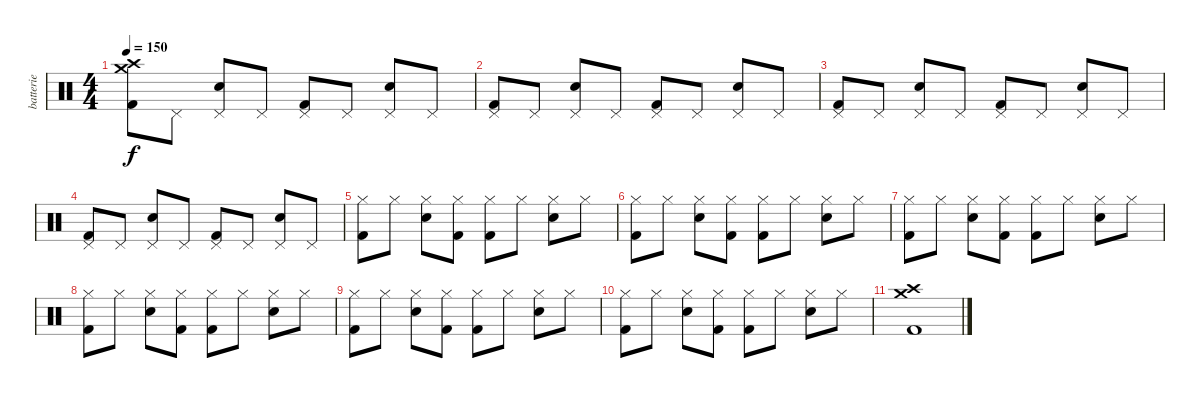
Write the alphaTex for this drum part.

\track ("batterie" "batterie") {instrument percussion}
\staff {score}
\articulation defaults
\ts (4 4)
\tempo 150
\clef neutral
\ks c
("Crash high (hit)" "Crash medium (hit)" "Kick (hit) 2").8{dy f} "Pedal Hi-Hat (hit)".8 ("Pedal Hi-Hat (hit)" "Snare (hit) 2").8 "Pedal Hi-Hat (hit)".8 ("Pedal Hi-Hat (hit)" "Kick (hit) 2").8 "Pedal Hi-Hat (hit)".8 ("Pedal Hi-Hat (hit)" "Snare (hit) 2").8 "Pedal Hi-Hat (hit)".8 |
("Pedal Hi-Hat (hit)" "Kick (hit) 2").8 "Pedal Hi-Hat (hit)".8 ("Pedal Hi-Hat (hit)" "Snare (hit) 2").8 "Pedal Hi-Hat (hit)".8 ("Pedal Hi-Hat (hit)" "Kick (hit) 2").8 "Pedal Hi-Hat (hit)".8 ("Pedal Hi-Hat (hit)" "Snare (hit) 2").8 "Pedal Hi-Hat (hit)".8 |
("Pedal Hi-Hat (hit)" "Kick (hit) 2").8 "Pedal Hi-Hat (hit)".8 ("Pedal Hi-Hat (hit)" "Snare (hit) 2").8 "Pedal Hi-Hat (hit)".8 ("Pedal Hi-Hat (hit)" "Kick (hit) 2").8 "Pedal Hi-Hat (hit)".8 ("Pedal Hi-Hat (hit)" "Snare (hit) 2").8 "Pedal Hi-Hat (hit)".8 |
("Pedal Hi-Hat (hit)" "Kick (hit) 2").8 "Pedal Hi-Hat (hit)".8 ("Pedal Hi-Hat (hit)" "Snare (hit) 2").8 "Pedal Hi-Hat (hit)".8 ("Pedal Hi-Hat (hit)" "Kick (hit) 2").8 "Pedal Hi-Hat (hit)".8 ("Pedal Hi-Hat (hit)" "Snare (hit) 2").8 "Pedal Hi-Hat (hit)".8 |
("Hi-Hat (closed)" "Kick (hit) 2").8 "Hi-Hat (closed)".8 ("Hi-Hat (closed)" "Snare (hit) 2").8 ("Hi-Hat (closed)" "Kick (hit) 2").8 ("Hi-Hat (closed)" "Kick (hit) 2").8 "Hi-Hat (closed)".8 ("Hi-Hat (closed)" "Snare (hit) 2").8 "Hi-Hat (closed)".8 |
("Hi-Hat (closed)" "Kick (hit) 2").8 "Hi-Hat (closed)".8 ("Hi-Hat (closed)" "Snare (hit) 2").8 ("Hi-Hat (closed)" "Kick (hit) 2").8 ("Hi-Hat (closed)" "Kick (hit) 2").8 "Hi-Hat (closed)".8 ("Hi-Hat (closed)" "Snare (hit) 2").8 "Hi-Hat (closed)".8 |
("Hi-Hat (closed)" "Kick (hit) 2").8 "Hi-Hat (closed)".8 ("Hi-Hat (closed)" "Snare (hit) 2").8 ("Hi-Hat (closed)" "Kick (hit) 2").8 ("Hi-Hat (closed)" "Kick (hit) 2").8 "Hi-Hat (closed)".8 ("Hi-Hat (closed)" "Snare (hit) 2").8 "Hi-Hat (closed)".8 |
("Hi-Hat (closed)" "Kick (hit) 2").8 "Hi-Hat (closed)".8 ("Hi-Hat (closed)" "Snare (hit) 2").8 ("Hi-Hat (closed)" "Kick (hit) 2").8 ("Hi-Hat (closed)" "Kick (hit) 2").8 "Hi-Hat (closed)".8 ("Hi-Hat (closed)" "Snare (hit) 2").8 "Hi-Hat (closed)".8 |
("Hi-Hat (closed)" "Kick (hit) 2").8 "Hi-Hat (closed)".8 ("Hi-Hat (closed)" "Snare (hit) 2").8 ("Hi-Hat (closed)" "Kick (hit) 2").8 ("Hi-Hat (closed)" "Kick (hit) 2").8 "Hi-Hat (closed)".8 ("Hi-Hat (closed)" "Snare (hit) 2").8 "Hi-Hat (closed)".8 |
("Hi-Hat (closed)" "Kick (hit) 2").8 "Hi-Hat (closed)".8 ("Hi-Hat (closed)" "Snare (hit) 2").8 ("Hi-Hat (closed)" "Kick (hit) 2").8 ("Hi-Hat (closed)" "Kick (hit) 2").8 "Hi-Hat (closed)".8 ("Hi-Hat (closed)" "Snare (hit) 2").8 "Hi-Hat (closed)".8 |
("Crash high (hit)" "Crash medium (hit)" "Kick (hit) 2").1
